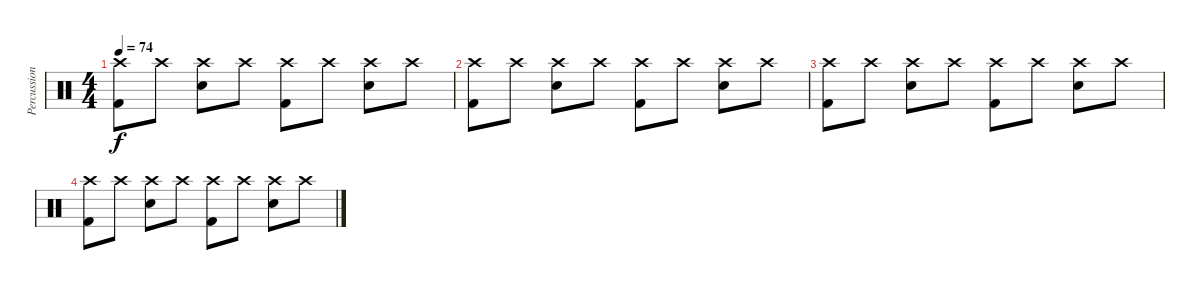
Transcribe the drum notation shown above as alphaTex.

\track ("Percussion" "Percussion") {instrument percussion}
\staff {score}
\articulation defaults
\ts (4 4)
\tempo 74
\clef neutral
\ks c
("Crash high (hit)" "Kick (hit) 2").8{dy f} "Crash high (hit)".8 ("Crash high (hit)" "Snare (hit) 2").8 "Crash high (hit)".8 ("Crash high (hit)" "Kick (hit) 2").8 "Crash high (hit)".8 ("Crash high (hit)" "Snare (hit) 2").8 "Crash high (hit)".8 |
("Crash high (hit)" "Kick (hit) 2").8 "Crash high (hit)".8 ("Crash high (hit)" "Snare (hit) 2").8 "Crash high (hit)".8 ("Crash high (hit)" "Kick (hit) 2").8 "Crash high (hit)".8 ("Crash high (hit)" "Snare (hit) 2").8 "Crash high (hit)".8 |
("Crash high (hit)" "Kick (hit) 2").8 "Crash high (hit)".8 ("Crash high (hit)" "Snare (hit) 2").8 "Crash high (hit)".8 ("Crash high (hit)" "Kick (hit) 2").8 "Crash high (hit)".8 ("Crash high (hit)" "Snare (hit) 2").8 "Crash high (hit)".8 |
("Crash high (hit)" "Kick (hit) 2").8 "Crash high (hit)".8 ("Crash high (hit)" "Snare (hit) 2").8 "Crash high (hit)".8 ("Crash high (hit)" "Kick (hit) 2").8 "Crash high (hit)".8 ("Crash high (hit)" "Snare (hit) 2").8 "Crash high (hit)".8
